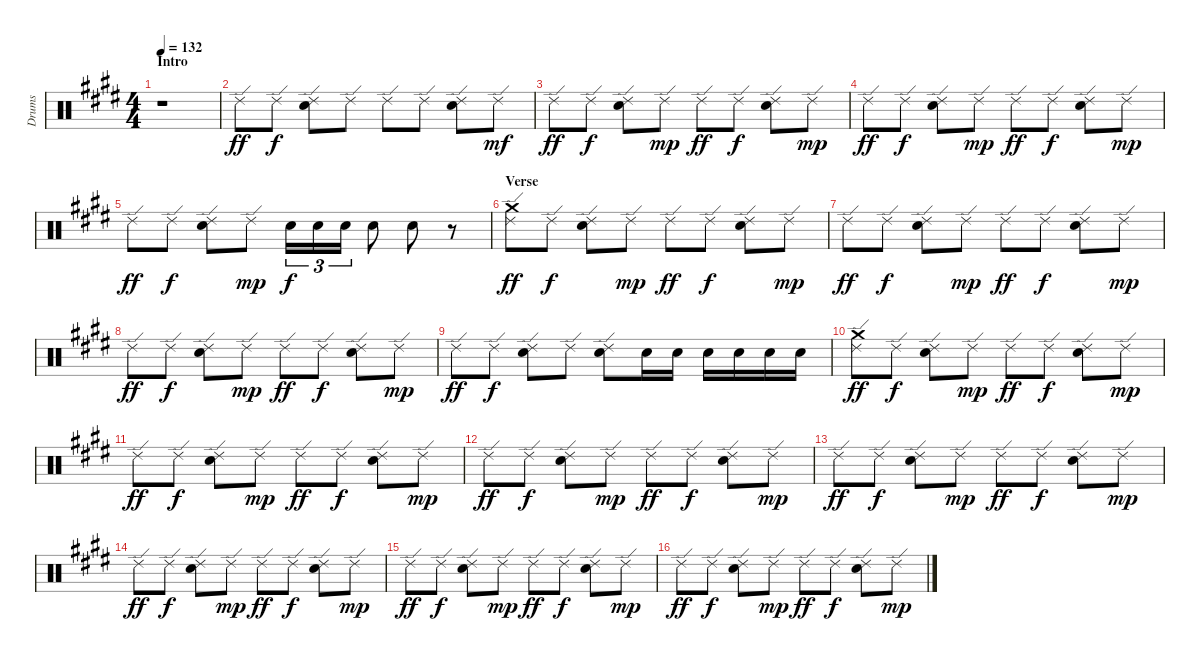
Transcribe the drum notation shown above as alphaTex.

\track ("Drums" "Drums") {instrument percussion}
\staff {score}
\articulation defaults
\ts (4 4)
\section ("" "Intro")
\tempo 132
\clef neutral
\ks e
r.1{dy ff} |
"Ride (edge) 2".8 "Ride (edge) 2".8{dy f} ("Electric Snare (hit)" "Ride (edge) 2").8 "Ride (edge) 2".8 "Ride (edge) 2".8 "Ride (edge) 2".8 ("Electric Snare (hit)" "Ride (edge) 2").8 "Ride (edge) 2".8{dy mf} |
"Ride (edge) 2".8{dy ff} "Ride (edge) 2".8{dy f} ("Electric Snare (hit)" "Ride (edge) 2").8 "Ride (edge) 2".8{dy mp} "Ride (edge) 2".8{dy ff} "Ride (edge) 2".8{dy f} ("Electric Snare (hit)" "Ride (edge) 2").8 "Ride (edge) 2".8{dy mp} |
"Ride (edge) 2".8{dy ff} "Ride (edge) 2".8{dy f} ("Electric Snare (hit)" "Ride (edge) 2").8 "Ride (edge) 2".8{dy mp} "Ride (edge) 2".8{dy ff} "Ride (edge) 2".8{dy f} ("Electric Snare (hit)" "Ride (edge) 2").8 "Ride (edge) 2".8{dy mp} |
"Ride (edge) 2".8{dy ff} "Ride (edge) 2".8{dy f} ("Electric Snare (hit)" "Ride (edge) 2").8 "Ride (edge) 2".8{dy mp} "Electric Snare (hit)".16{tu (3 2) dy f} "Electric Snare (hit)".16{tu (3 2)} "Electric Snare (hit)".16{tu (3 2)} "Electric Snare (hit)".8 "Electric Snare (hit)".8 r.8 |
\section ("" "Verse")
("Crash medium (hit)" "Ride (edge) 2").8{dy ff} "Ride (edge) 2".8{dy f} ("Electric Snare (hit)" "Ride (edge) 2").8 "Ride (edge) 2".8{dy mp} "Ride (edge) 2".8{dy ff} "Ride (edge) 2".8{dy f} ("Electric Snare (hit)" "Ride (edge) 2").8 "Ride (edge) 2".8{dy mp} |
"Ride (edge) 2".8{dy ff} "Ride (edge) 2".8{dy f} ("Electric Snare (hit)" "Ride (edge) 2").8 "Ride (edge) 2".8{dy mp} "Ride (edge) 2".8{dy ff} "Ride (edge) 2".8{dy f} ("Electric Snare (hit)" "Ride (edge) 2").8 "Ride (edge) 2".8{dy mp} |
"Ride (edge) 2".8{dy ff} "Ride (edge) 2".8{dy f} ("Electric Snare (hit)" "Ride (edge) 2").8 "Ride (edge) 2".8{dy mp} "Ride (edge) 2".8{dy ff} "Ride (edge) 2".8{dy f} ("Electric Snare (hit)" "Ride (edge) 2").8 "Ride (edge) 2".8{dy mp} |
"Ride (edge) 2".8{dy ff} "Ride (edge) 2".8{dy f} ("Electric Snare (hit)" "Ride (edge) 2").8 "Ride (edge) 2".8 ("Electric Snare (hit)" "Ride (edge) 2").8 "Electric Snare (hit)".16 "Electric Snare (hit)".16 "Electric Snare (hit)".16 "Electric Snare (hit)".16 "Electric Snare (hit)".16 "Electric Snare (hit)".16 |
("Crash medium (hit)" "Ride (edge) 2").8{dy ff} "Ride (edge) 2".8{dy f} ("Electric Snare (hit)" "Ride (edge) 2").8 "Ride (edge) 2".8{dy mp} "Ride (edge) 2".8{dy ff} "Ride (edge) 2".8{dy f} ("Electric Snare (hit)" "Ride (edge) 2").8 "Ride (edge) 2".8{dy mp} |
"Ride (edge) 2".8{dy ff} "Ride (edge) 2".8{dy f} ("Electric Snare (hit)" "Ride (edge) 2").8 "Ride (edge) 2".8{dy mp} "Ride (edge) 2".8{dy ff} "Ride (edge) 2".8{dy f} ("Electric Snare (hit)" "Ride (edge) 2").8 "Ride (edge) 2".8{dy mp} |
"Ride (edge) 2".8{dy ff} "Ride (edge) 2".8{dy f} ("Electric Snare (hit)" "Ride (edge) 2").8 "Ride (edge) 2".8{dy mp} "Ride (edge) 2".8{dy ff} "Ride (edge) 2".8{dy f} ("Electric Snare (hit)" "Ride (edge) 2").8 "Ride (edge) 2".8{dy mp} |
"Ride (edge) 2".8{dy ff} "Ride (edge) 2".8{dy f} ("Electric Snare (hit)" "Ride (edge) 2").8 "Ride (edge) 2".8{dy mp} "Ride (edge) 2".8{dy ff} "Ride (edge) 2".8{dy f} ("Electric Snare (hit)" "Ride (edge) 2").8 "Ride (edge) 2".8{dy mp} |
"Ride (edge) 2".8{dy ff} "Ride (edge) 2".8{dy f} ("Electric Snare (hit)" "Ride (edge) 2").8 "Ride (edge) 2".8{dy mp} "Ride (edge) 2".8{dy ff} "Ride (edge) 2".8{dy f} ("Electric Snare (hit)" "Ride (edge) 2").8 "Ride (edge) 2".8{dy mp} |
"Ride (edge) 2".8{dy ff} "Ride (edge) 2".8{dy f} ("Electric Snare (hit)" "Ride (edge) 2").8 "Ride (edge) 2".8{dy mp} "Ride (edge) 2".8{dy ff} "Ride (edge) 2".8{dy f} ("Electric Snare (hit)" "Ride (edge) 2").8 "Ride (edge) 2".8{dy mp} |
"Ride (edge) 2".8{dy ff} "Ride (edge) 2".8{dy f} ("Electric Snare (hit)" "Ride (edge) 2").8 "Ride (edge) 2".8{dy mp} "Ride (edge) 2".8{dy ff} "Ride (edge) 2".8{dy f} ("Electric Snare (hit)" "Ride (edge) 2").8 "Ride (edge) 2".8{dy mp}
